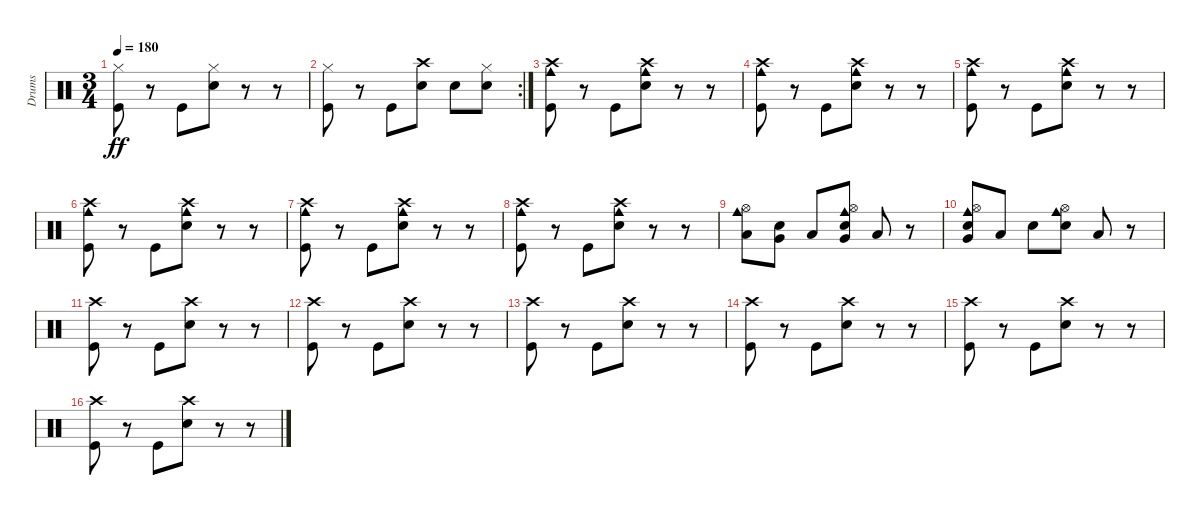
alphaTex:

\track ("Drums" "Drums") {instrument percussion}
\staff {score}
\articulation defaults
\ts (3 4)
\tempo 180
\clef neutral
\ks c
("Hi-Hat (closed)" "Kick (hit)").8{dy ff} r.8 "Kick (hit)".8 ("Hi-Hat (closed)" "Snare (hit) 2").8 r.8 r.8 |
\rc 2
("Hi-Hat (closed)" "Kick (hit)").8 r.8 "Kick (hit)".8 ("Crash high (hit)" "Snare (hit) 2").8 "Snare (hit) 2".8 ("Hi-Hat (closed)" "Snare (hit) 2").8 |
("Cowbell medium (hit)" "Crash high (hit)" "Kick (hit)").8 r.8 "Kick (hit)".8 ("Cowbell medium (hit)" "Crash high (hit)" "Snare (hit) 2").8 r.8 r.8 |
("Cowbell medium (hit)" "Crash high (hit)" "Kick (hit)").8 r.8 "Kick (hit)".8 ("Cowbell medium (hit)" "Crash high (hit)" "Snare (hit) 2").8 r.8 r.8 |
("Cowbell medium (hit)" "Crash high (hit)" "Kick (hit)").8 r.8 "Kick (hit)".8 ("Cowbell medium (hit)" "Crash high (hit)" "Snare (hit) 2").8 r.8 r.8 |
("Cowbell medium (hit)" "Crash high (hit)" "Kick (hit)").8 r.8 "Kick (hit)".8 ("Cowbell medium (hit)" "Crash high (hit)" "Snare (hit) 2").8 r.8 r.8 |
("Cowbell medium (hit)" "Crash high (hit)" "Kick (hit)").8 r.8 "Kick (hit)".8 ("Cowbell medium (hit)" "Crash high (hit)" "Snare (hit) 2").8 r.8 r.8 |
("Cowbell medium (hit)" "Crash high (hit)" "Kick (hit)").8 r.8 "Kick (hit)".8 ("Cowbell medium (hit)" "Crash high (hit)" "Snare (hit) 2").8 r.8 r.8 |
("Cowbell medium (hit)" "Hi-Hat (open)" "Low Floor Tom (hit)").8 ("Snare (hit) 2" "Very Low Tom (hit)").8 "Low Floor Tom (hit)".8 ("Cowbell medium (hit)" "Hi-Hat (open)" "Snare (hit) 2" "Very Low Tom (hit)").8 "Low Tom (hit)".8 r.8 |
("Cowbell medium (hit)" "Hi-Hat (open)" "Snare (hit) 2" "Very Low Tom (hit)").8 "Low Tom (hit)".8 "Snare (hit) 2".8 ("Cowbell medium (hit)" "Hi-Hat (open)" "Snare (hit) 2").8 "Low Floor Tom (hit)".8 r.8 |
("Crash high (hit)" "Kick (hit)").8 r.8 "Kick (hit)".8 ("Crash high (hit)" "Snare (hit) 2").8 r.8 r.8 |
("Crash high (hit)" "Kick (hit)").8 r.8 "Kick (hit)".8 ("Crash high (hit)" "Snare (hit) 2").8 r.8 r.8 |
("Crash high (hit)" "Kick (hit)").8 r.8 "Kick (hit)".8 ("Crash high (hit)" "Snare (hit) 2").8 r.8 r.8 |
("Crash high (hit)" "Kick (hit)").8 r.8 "Kick (hit)".8 ("Crash high (hit)" "Snare (hit) 2").8 r.8 r.8 |
("Crash high (hit)" "Kick (hit)").8 r.8 "Kick (hit)".8 ("Crash high (hit)" "Snare (hit) 2").8 r.8 r.8 |
("Crash high (hit)" "Kick (hit)").8 r.8 "Kick (hit)".8 ("Crash high (hit)" "Snare (hit) 2").8 r.8 r.8
